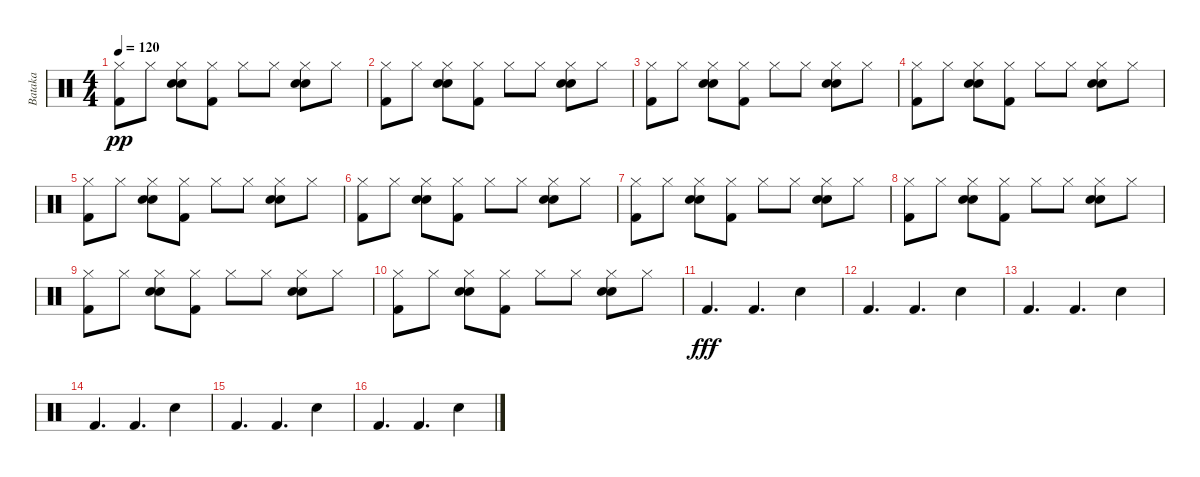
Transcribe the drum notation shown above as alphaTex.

\track ("Bataka" "Bataka") {instrument percussion}
\staff {score}
\articulation defaults
\ts (4 4)
\tempo 120
\clef neutral
\ks c
("Hi-Hat (closed)" "Kick (hit) 2").8{dy pp} "Hi-Hat (closed)".8 ("Hi-Hat (closed)" "Electric Snare (hit)" "Snare (hit) 2").8 ("Hi-Hat (closed)" "Kick (hit) 2").8 "Hi-Hat (closed)".8 "Hi-Hat (closed)".8 ("Hi-Hat (closed)" "Snare (hit) 2" "Electric Snare (hit)").8 "Hi-Hat (closed)".8 |
("Hi-Hat (closed)" "Kick (hit) 2").8 "Hi-Hat (closed)".8 ("Hi-Hat (closed)" "Electric Snare (hit)" "Snare (hit) 2").8 ("Hi-Hat (closed)" "Kick (hit) 2").8 "Hi-Hat (closed)".8 "Hi-Hat (closed)".8 ("Hi-Hat (closed)" "Snare (hit) 2" "Electric Snare (hit)").8 "Hi-Hat (closed)".8 |
("Hi-Hat (closed)" "Kick (hit) 2").8 "Hi-Hat (closed)".8 ("Hi-Hat (closed)" "Electric Snare (hit)" "Snare (hit) 2").8 ("Hi-Hat (closed)" "Kick (hit) 2").8 "Hi-Hat (closed)".8 "Hi-Hat (closed)".8 ("Hi-Hat (closed)" "Snare (hit) 2" "Electric Snare (hit)").8 "Hi-Hat (closed)".8 |
("Hi-Hat (closed)" "Kick (hit) 2").8 "Hi-Hat (closed)".8 ("Hi-Hat (closed)" "Electric Snare (hit)" "Snare (hit) 2").8 ("Hi-Hat (closed)" "Kick (hit) 2").8 "Hi-Hat (closed)".8 "Hi-Hat (closed)".8 ("Hi-Hat (closed)" "Snare (hit) 2" "Electric Snare (hit)").8 "Hi-Hat (closed)".8 |
("Hi-Hat (closed)" "Kick (hit) 2").8 "Hi-Hat (closed)".8 ("Hi-Hat (closed)" "Electric Snare (hit)" "Snare (hit) 2").8 ("Hi-Hat (closed)" "Kick (hit) 2").8 "Hi-Hat (closed)".8 "Hi-Hat (closed)".8 ("Hi-Hat (closed)" "Snare (hit) 2" "Electric Snare (hit)").8 "Hi-Hat (closed)".8 |
("Hi-Hat (closed)" "Kick (hit) 2").8 "Hi-Hat (closed)".8 ("Hi-Hat (closed)" "Electric Snare (hit)" "Snare (hit) 2").8 ("Hi-Hat (closed)" "Kick (hit) 2").8 "Hi-Hat (closed)".8 "Hi-Hat (closed)".8 ("Hi-Hat (closed)" "Snare (hit) 2" "Electric Snare (hit)").8 "Hi-Hat (closed)".8 |
("Hi-Hat (closed)" "Kick (hit) 2").8 "Hi-Hat (closed)".8 ("Hi-Hat (closed)" "Electric Snare (hit)" "Snare (hit) 2").8 ("Hi-Hat (closed)" "Kick (hit) 2").8 "Hi-Hat (closed)".8 "Hi-Hat (closed)".8 ("Hi-Hat (closed)" "Snare (hit) 2" "Electric Snare (hit)").8 "Hi-Hat (closed)".8 |
("Hi-Hat (closed)" "Kick (hit) 2").8 "Hi-Hat (closed)".8 ("Hi-Hat (closed)" "Electric Snare (hit)" "Snare (hit) 2").8 ("Hi-Hat (closed)" "Kick (hit) 2").8 "Hi-Hat (closed)".8 "Hi-Hat (closed)".8 ("Hi-Hat (closed)" "Snare (hit) 2" "Electric Snare (hit)").8 "Hi-Hat (closed)".8 |
("Hi-Hat (closed)" "Kick (hit) 2").8 "Hi-Hat (closed)".8 ("Hi-Hat (closed)" "Electric Snare (hit)" "Snare (hit) 2").8 ("Hi-Hat (closed)" "Kick (hit) 2").8 "Hi-Hat (closed)".8 "Hi-Hat (closed)".8 ("Hi-Hat (closed)" "Snare (hit) 2" "Electric Snare (hit)").8 "Hi-Hat (closed)".8 |
("Hi-Hat (closed)" "Kick (hit) 2").8 "Hi-Hat (closed)".8 ("Hi-Hat (closed)" "Electric Snare (hit)" "Snare (hit) 2").8 ("Hi-Hat (closed)" "Kick (hit) 2").8 "Hi-Hat (closed)".8 "Hi-Hat (closed)".8 ("Hi-Hat (closed)" "Snare (hit) 2" "Electric Snare (hit)").8 "Hi-Hat (closed)".8 |
"Kick (hit) 2".4{d dy fff} "Kick (hit) 2".4{d} "Electric Snare (hit)".4 |
"Kick (hit) 2".4{d} "Kick (hit) 2".4{d} "Electric Snare (hit)".4 |
"Kick (hit) 2".4{d} "Kick (hit) 2".4{d} "Electric Snare (hit)".4 |
"Kick (hit) 2".4{d} "Kick (hit) 2".4{d} "Electric Snare (hit)".4 |
"Kick (hit) 2".4{d} "Kick (hit) 2".4{d} "Electric Snare (hit)".4 |
"Kick (hit) 2".4{d} "Kick (hit) 2".4{d} "Electric Snare (hit)".4
